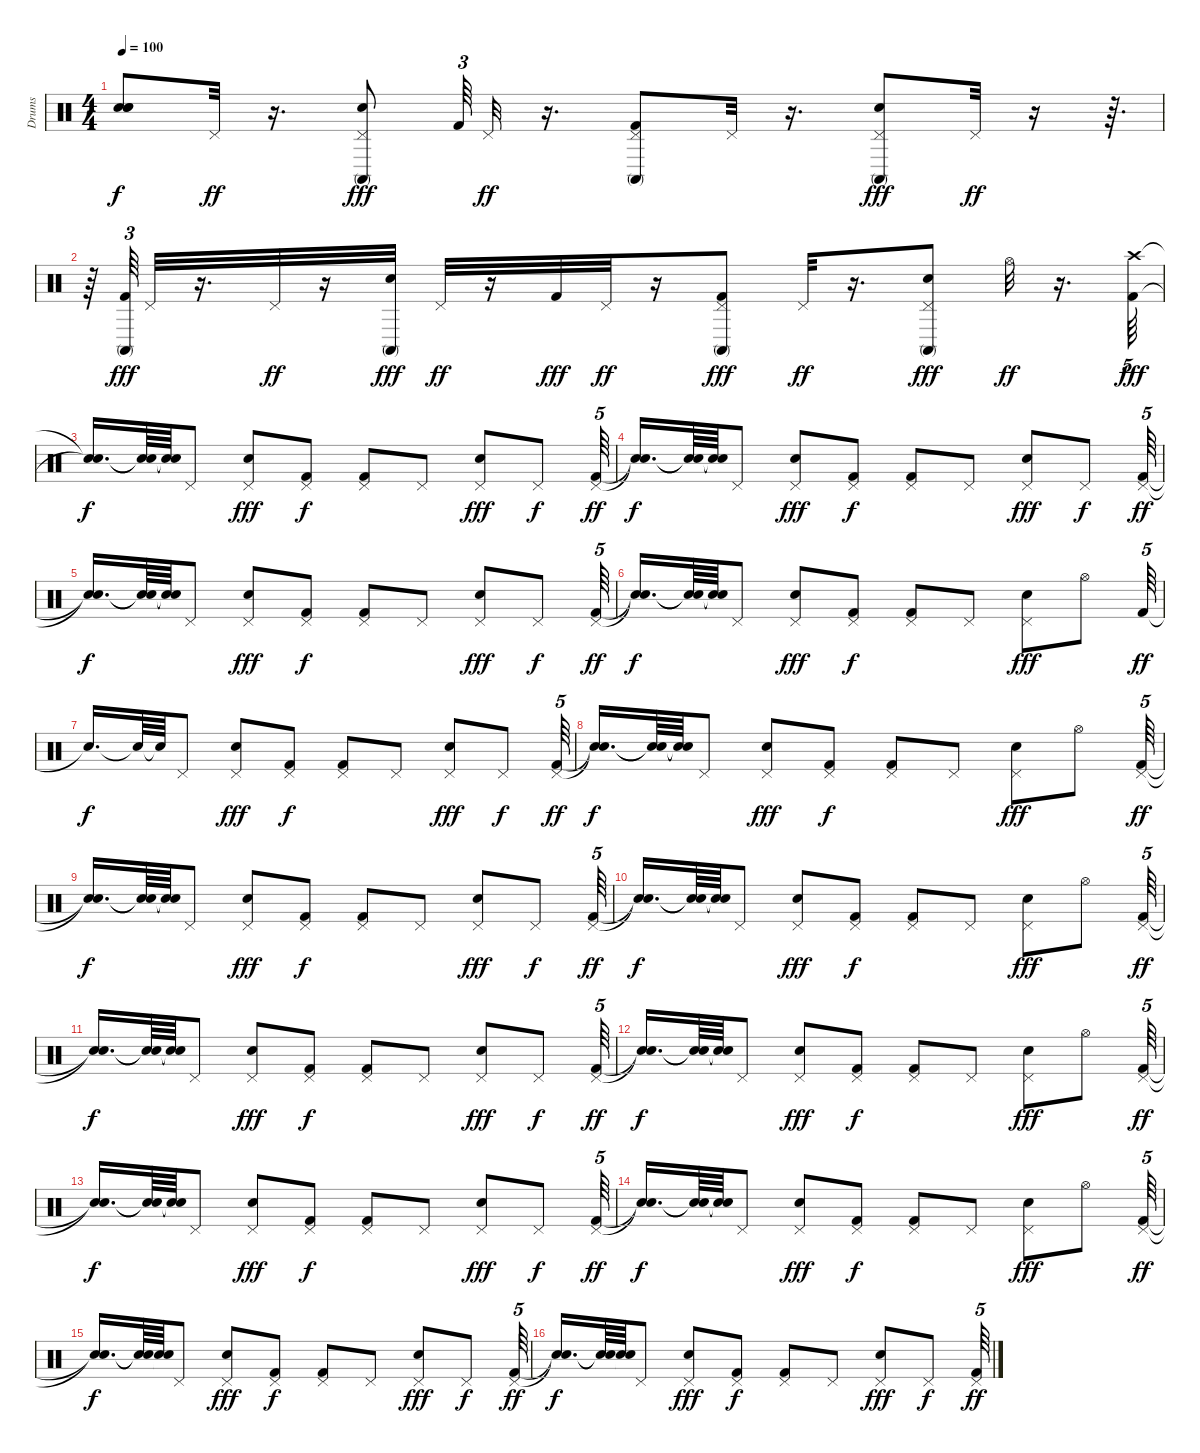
\track ("Drums" "Drums") {instrument percussion}
\staff {score}
\articulation defaults
\ts (4 4)
\tempo 100
\clef neutral
\ks c
("Snare (hit)"{t} "Snare (hit)"{t} "Snare (hit)"{t}).8{dy f} "Pedal Hi-Hat (hit)".32{dy ff} r.16{d} ("Conga high (mute)" "Snare (hit) 2" "Pedal Hi-Hat (hit)").8{dy fff} "Kick (hit) 2".64{tu (3 2)} "Pedal Hi-Hat (hit)".32{dy ff} r.16{d} ("Conga high (mute)" "Kick (hit) 2" "Pedal Hi-Hat (hit)").8 "Pedal Hi-Hat (hit)".32 r.16{d} ("Conga high (mute)" "Snare (hit) 2" "Pedal Hi-Hat (hit)").8{dy fff} "Pedal Hi-Hat (hit)".32{dy ff} r.16 r.64{d} |
r.64 ("Conga high (mute)" "Kick (hit) 2").64{tu (3 2) dy fff} "Pedal Hi-Hat (hit)".32 r.16{d} "Pedal Hi-Hat (hit)".32{dy ff} r.16 ("Conga high (mute)" "Snare (hit) 2").32{dy fff} "Pedal Hi-Hat (hit)".32{dy ff} r.16 "Kick (hit) 2".32{dy fff} "Pedal Hi-Hat (hit)".32{dy ff} r.16 ("Pedal Hi-Hat (hit)" "Conga high (mute)" "Kick (hit) 2").8{dy fff} "Pedal Hi-Hat (hit)".32{dy ff} r.16{d} ("Pedal Hi-Hat (hit)" "Conga high (mute)" "Snare (hit) 2").8{dy fff} "Hi-Hat (open)".32{dy ff} r.16{d} ("Kick (hit) 2" "Crash high (hit)").64{tu (5 4) dy fff} |
("Snare (hit)"{t} "Snare (hit)"{t}).16{d dy f} ("Snare (hit)"{t} "Snare (hit)"{t}).64 ("Snare (hit)"{t} "Snare (hit)"{t}).64 "Pedal Hi-Hat (hit)".8 ("Snare (hit) 2" "Pedal Hi-Hat (hit)").8{dy fff} ("Kick (hit) 2" "Pedal Hi-Hat (hit)").8{dy f} ("Kick (hit) 2" "Pedal Hi-Hat (hit)").8 "Pedal Hi-Hat (hit)".8 ("Snare (hit) 2" "Pedal Hi-Hat (hit)").8{dy fff} "Pedal Hi-Hat (hit)".8{dy f} ("Pedal Hi-Hat (hit)" "Kick (hit) 2").64{tu (5 4) dy ff} |
("Snare (hit)"{t} "Snare (hit)"{t}).16{d dy f} ("Snare (hit)"{t} "Snare (hit)"{t}).64 ("Snare (hit)"{t} "Snare (hit)"{t}).64 "Pedal Hi-Hat (hit)".8 ("Pedal Hi-Hat (hit)" "Snare (hit) 2").8{dy fff} ("Kick (hit) 2" "Pedal Hi-Hat (hit)").8{dy f} ("Pedal Hi-Hat (hit)" "Kick (hit) 2").8 "Pedal Hi-Hat (hit)".8 ("Pedal Hi-Hat (hit)" "Snare (hit) 2").8{dy fff} "Pedal Hi-Hat (hit)".8{dy f} ("Pedal Hi-Hat (hit)" "Kick (hit) 2").64{tu (5 4) dy ff} |
("Snare (hit)"{t} "Snare (hit)"{t}).16{d dy f} ("Snare (hit)"{t} "Snare (hit)"{t}).64 ("Snare (hit)"{t} "Snare (hit)"{t}).64 "Pedal Hi-Hat (hit)".8 ("Snare (hit) 2" "Pedal Hi-Hat (hit)").8{dy fff} ("Kick (hit) 2" "Pedal Hi-Hat (hit)").8{dy f} ("Kick (hit) 2" "Pedal Hi-Hat (hit)").8 "Pedal Hi-Hat (hit)".8 ("Snare (hit) 2" "Pedal Hi-Hat (hit)").8{dy fff} "Pedal Hi-Hat (hit)".8{dy f} ("Pedal Hi-Hat (hit)" "Kick (hit) 2").64{tu (5 4) dy ff} |
("Snare (hit)"{t} "Snare (hit)"{t}).16{d dy f} ("Snare (hit)"{t} "Snare (hit)"{t}).64 ("Snare (hit)"{t} "Snare (hit)"{t}).64 "Pedal Hi-Hat (hit)".8 ("Pedal Hi-Hat (hit)" "Snare (hit) 2").8{dy fff} ("Kick (hit) 2" "Pedal Hi-Hat (hit)").8{dy f} ("Pedal Hi-Hat (hit)" "Kick (hit) 2").8 "Pedal Hi-Hat (hit)".8 ("Pedal Hi-Hat (hit)" "Snare (hit) 2").8{dy fff} "Hi-Hat (open)".8 "Kick (hit) 2".64{tu (5 4) dy ff} |
"Snare (hit)"{t}.16{d dy f} "Snare (hit)"{t}.64 "Snare (hit)"{t}.64 "Pedal Hi-Hat (hit)".8 ("Snare (hit) 2" "Pedal Hi-Hat (hit)").8{dy fff} ("Kick (hit) 2" "Pedal Hi-Hat (hit)").8{dy f} ("Kick (hit) 2" "Pedal Hi-Hat (hit)").8 "Pedal Hi-Hat (hit)".8 ("Snare (hit) 2" "Pedal Hi-Hat (hit)").8{dy fff} "Pedal Hi-Hat (hit)".8{dy f} ("Pedal Hi-Hat (hit)" "Kick (hit) 2").64{tu (5 4) dy ff} |
("Snare (hit)"{t} "Snare (hit)"{t}).16{d dy f} ("Snare (hit)"{t} "Snare (hit)"{t}).64 ("Snare (hit)"{t} "Snare (hit)"{t}).64 "Pedal Hi-Hat (hit)".8 ("Pedal Hi-Hat (hit)" "Snare (hit) 2").8{dy fff} ("Kick (hit) 2" "Pedal Hi-Hat (hit)").8{dy f} ("Pedal Hi-Hat (hit)" "Kick (hit) 2").8 "Pedal Hi-Hat (hit)".8 ("Pedal Hi-Hat (hit)" "Snare (hit) 2").8{dy fff} "Hi-Hat (open)".8 ("Pedal Hi-Hat (hit)" "Kick (hit) 2").64{tu (5 4) dy ff} |
("Snare (hit)"{t} "Snare (hit)"{t}).16{d dy f} ("Snare (hit)"{t} "Snare (hit)"{t}).64 ("Snare (hit)"{t} "Snare (hit)"{t}).64 "Pedal Hi-Hat (hit)".8 ("Snare (hit) 2" "Pedal Hi-Hat (hit)").8{dy fff} ("Kick (hit) 2" "Pedal Hi-Hat (hit)").8{dy f} ("Kick (hit) 2" "Pedal Hi-Hat (hit)").8 "Pedal Hi-Hat (hit)".8 ("Snare (hit) 2" "Pedal Hi-Hat (hit)").8{dy fff} "Pedal Hi-Hat (hit)".8{dy f} ("Pedal Hi-Hat (hit)" "Kick (hit) 2").64{tu (5 4) dy ff} |
("Snare (hit)"{t} "Snare (hit)"{t}).16{d dy f} ("Snare (hit)"{t} "Snare (hit)"{t}).64 ("Snare (hit)"{t} "Snare (hit)"{t}).64 "Pedal Hi-Hat (hit)".8 ("Pedal Hi-Hat (hit)" "Snare (hit) 2").8{dy fff} ("Kick (hit) 2" "Pedal Hi-Hat (hit)").8{dy f} ("Pedal Hi-Hat (hit)" "Kick (hit) 2").8 "Pedal Hi-Hat (hit)".8 ("Pedal Hi-Hat (hit)" "Snare (hit) 2").8{dy fff} "Hi-Hat (open)".8 ("Pedal Hi-Hat (hit)" "Kick (hit) 2").64{tu (5 4) dy ff} |
("Snare (hit)"{t} "Snare (hit)"{t}).16{d dy f} ("Snare (hit)"{t} "Snare (hit)"{t}).64 ("Snare (hit)"{t} "Snare (hit)"{t}).64 "Pedal Hi-Hat (hit)".8 ("Snare (hit) 2" "Pedal Hi-Hat (hit)").8{dy fff} ("Kick (hit) 2" "Pedal Hi-Hat (hit)").8{dy f} ("Kick (hit) 2" "Pedal Hi-Hat (hit)").8 "Pedal Hi-Hat (hit)".8 ("Snare (hit) 2" "Pedal Hi-Hat (hit)").8{dy fff} "Pedal Hi-Hat (hit)".8{dy f} ("Pedal Hi-Hat (hit)" "Kick (hit) 2").64{tu (5 4) dy ff} |
("Snare (hit)"{t} "Snare (hit)"{t}).16{d dy f} ("Snare (hit)"{t} "Snare (hit)"{t}).64 ("Snare (hit)"{t} "Snare (hit)"{t}).64 "Pedal Hi-Hat (hit)".8 ("Pedal Hi-Hat (hit)" "Snare (hit) 2").8{dy fff} ("Kick (hit) 2" "Pedal Hi-Hat (hit)").8{dy f} ("Pedal Hi-Hat (hit)" "Kick (hit) 2").8 "Pedal Hi-Hat (hit)".8 ("Pedal Hi-Hat (hit)" "Snare (hit) 2").8{dy fff} "Hi-Hat (open)".8 ("Pedal Hi-Hat (hit)" "Kick (hit) 2").64{tu (5 4) dy ff} |
("Snare (hit)"{t} "Snare (hit)"{t}).16{d dy f} ("Snare (hit)"{t} "Snare (hit)"{t}).64 ("Snare (hit)"{t} "Snare (hit)"{t}).64 "Pedal Hi-Hat (hit)".8 ("Snare (hit) 2" "Pedal Hi-Hat (hit)").8{dy fff} ("Kick (hit) 2" "Pedal Hi-Hat (hit)").8{dy f} ("Kick (hit) 2" "Pedal Hi-Hat (hit)").8 "Pedal Hi-Hat (hit)".8 ("Snare (hit) 2" "Pedal Hi-Hat (hit)").8{dy fff} "Pedal Hi-Hat (hit)".8{dy f} ("Pedal Hi-Hat (hit)" "Kick (hit) 2").64{tu (5 4) dy ff} |
("Snare (hit)"{t} "Snare (hit)"{t}).16{d dy f} ("Snare (hit)"{t} "Snare (hit)"{t}).64 ("Snare (hit)"{t} "Snare (hit)"{t}).64 "Pedal Hi-Hat (hit)".8 ("Pedal Hi-Hat (hit)" "Snare (hit) 2").8{dy fff} ("Kick (hit) 2" "Pedal Hi-Hat (hit)").8{dy f} ("Pedal Hi-Hat (hit)" "Kick (hit) 2").8 "Pedal Hi-Hat (hit)".8 ("Pedal Hi-Hat (hit)" "Snare (hit) 2").8{dy fff} "Hi-Hat (open)".8 ("Pedal Hi-Hat (hit)" "Kick (hit) 2").64{tu (5 4) dy ff} |
("Snare (hit)"{t} "Snare (hit)"{t}).16{d dy f} ("Snare (hit)"{t} "Snare (hit)"{t}).64 ("Snare (hit)"{t} "Snare (hit)"{t}).64 "Pedal Hi-Hat (hit)".8 ("Snare (hit) 2" "Pedal Hi-Hat (hit)").8{dy fff} ("Kick (hit) 2" "Pedal Hi-Hat (hit)").8{dy f} ("Kick (hit) 2" "Pedal Hi-Hat (hit)").8 "Pedal Hi-Hat (hit)".8 ("Snare (hit) 2" "Pedal Hi-Hat (hit)").8{dy fff} "Pedal Hi-Hat (hit)".8{dy f} ("Pedal Hi-Hat (hit)" "Kick (hit) 2").64{tu (5 4) dy ff} |
("Snare (hit)"{t} "Snare (hit)"{t}).16{d dy f} ("Snare (hit)"{t} "Snare (hit)"{t}).64 ("Snare (hit)"{t} "Snare (hit)"{t}).64 "Pedal Hi-Hat (hit)".8 ("Snare (hit) 2" "Pedal Hi-Hat (hit)").8{dy fff} ("Kick (hit) 2" "Pedal Hi-Hat (hit)").8{dy f} ("Kick (hit) 2" "Pedal Hi-Hat (hit)").8 "Pedal Hi-Hat (hit)".8 ("Snare (hit) 2" "Pedal Hi-Hat (hit)").8{dy fff} "Pedal Hi-Hat (hit)".8{dy f} ("Pedal Hi-Hat (hit)" "Kick (hit) 2").64{tu (5 4) dy ff}
